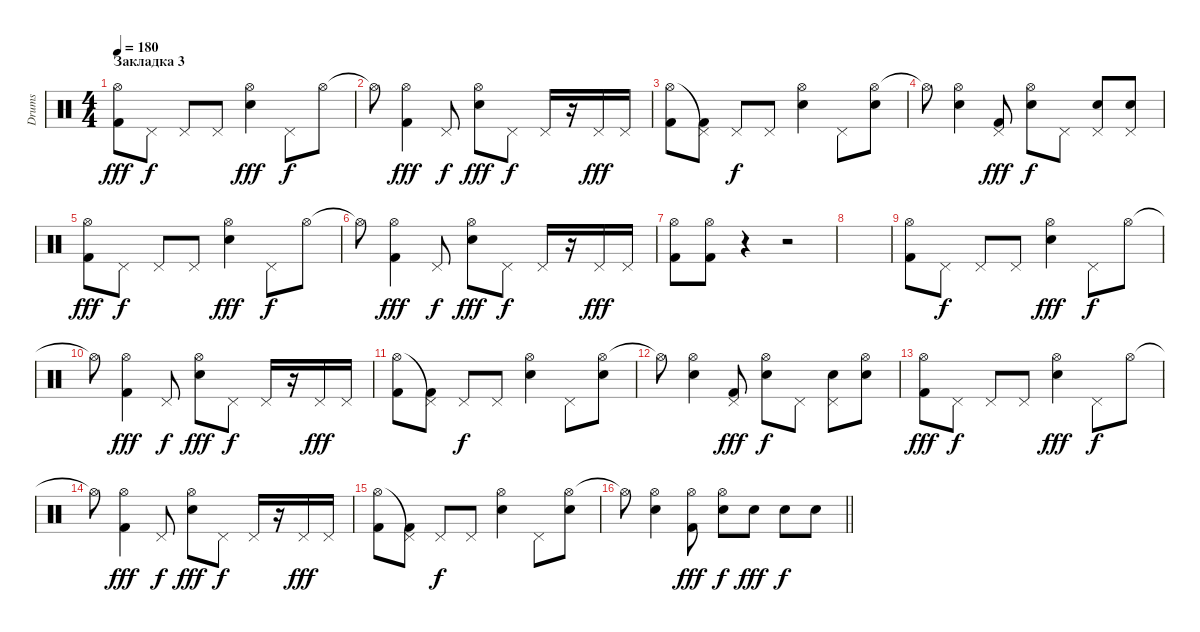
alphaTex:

\track ("Drums" "Drums") {instrument percussion}
\staff {score}
\articulation defaults
\ts (4 4)
\section ("" "Закладка 3")
\tempo 180
\clef neutral
\ks c
("Hi-Hat (open)" "Kick (hit) 2").8{dy fff} "Pedal Hi-Hat (hit)".8{dy f} "Pedal Hi-Hat (hit)".8 "Pedal Hi-Hat (hit)".8 ("Hi-Hat (open)" "Electric Snare (hit)").4{dy fff} "Pedal Hi-Hat (hit)".8{dy f} "Hi-Hat (open)".8 |
"Hi-Hat (open)"{t}.8 ("Hi-Hat (open)" "Kick (hit) 2").4{dy fff} "Pedal Hi-Hat (hit)".8{dy f} ("Hi-Hat (open)" "Electric Snare (hit)").8{dy fff} "Pedal Hi-Hat (hit)".8{dy f} "Pedal Hi-Hat (hit)".16 r.16 "Pedal Hi-Hat (hit)".16{dy fff} "Pedal Hi-Hat (hit)".16 |
("Hi-Hat (open)" "Kick (hit) 2").8 ("Pedal Hi-Hat (hit)"{t} "Kick (hit) 2").8 "Pedal Hi-Hat (hit)".8{dy f} "Pedal Hi-Hat (hit)".8 ("Hi-Hat (open)" "Electric Snare (hit)").4 "Pedal Hi-Hat (hit)".8 ("Hi-Hat (open)" "Electric Snare (hit)").8 |
"Hi-Hat (open)"{t}.8 ("Hi-Hat (open)" "Electric Snare (hit)").4 ("Pedal Hi-Hat (hit)" "Kick (hit) 2").8{dy fff} ("Hi-Hat (open)" "Electric Snare (hit)").8{dy f} "Pedal Hi-Hat (hit)".8 ("Pedal Hi-Hat (hit)" "Electric Snare (hit)").8 ("Pedal Hi-Hat (hit)" "Electric Snare (hit)").8 |
("Hi-Hat (open)" "Kick (hit) 2").8{dy fff} "Pedal Hi-Hat (hit)".8{dy f} "Pedal Hi-Hat (hit)".8 "Pedal Hi-Hat (hit)".8 ("Hi-Hat (open)" "Electric Snare (hit)").4{dy fff} "Pedal Hi-Hat (hit)".8{dy f} "Hi-Hat (open)".8 |
"Hi-Hat (open)"{t}.8 ("Hi-Hat (open)" "Kick (hit) 2").4{dy fff} "Pedal Hi-Hat (hit)".8{dy f} ("Hi-Hat (open)" "Electric Snare (hit)").8{dy fff} "Pedal Hi-Hat (hit)".8{dy f} "Pedal Hi-Hat (hit)".16 r.16 "Pedal Hi-Hat (hit)".16{dy fff} "Pedal Hi-Hat (hit)".16 |
("Hi-Hat (open)" "Kick (hit) 2").8 ("Hi-Hat (open)" "Kick (hit) 2").8 r.4 r.2 |
|
("Hi-Hat (open)" "Kick (hit) 2").8 "Pedal Hi-Hat (hit)".8{dy f} "Pedal Hi-Hat (hit)".8 "Pedal Hi-Hat (hit)".8 ("Hi-Hat (open)" "Electric Snare (hit)").4{dy fff} "Pedal Hi-Hat (hit)".8{dy f} "Hi-Hat (open)".8 |
"Hi-Hat (open)"{t}.8 ("Hi-Hat (open)" "Kick (hit) 2").4{dy fff} "Pedal Hi-Hat (hit)".8{dy f} ("Hi-Hat (open)" "Electric Snare (hit)").8{dy fff} "Pedal Hi-Hat (hit)".8{dy f} "Pedal Hi-Hat (hit)".16 r.16 "Pedal Hi-Hat (hit)".16{dy fff} "Pedal Hi-Hat (hit)".16 |
("Hi-Hat (open)" "Kick (hit) 2").8 ("Pedal Hi-Hat (hit)"{t} "Kick (hit) 2").8 "Pedal Hi-Hat (hit)".8{dy f} "Pedal Hi-Hat (hit)".8 ("Hi-Hat (open)" "Electric Snare (hit)").4 "Pedal Hi-Hat (hit)".8 ("Hi-Hat (open)" "Electric Snare (hit)").8 |
"Hi-Hat (open)"{t}.8 ("Hi-Hat (open)" "Electric Snare (hit)").4 ("Pedal Hi-Hat (hit)" "Kick (hit) 2").8{dy fff} ("Hi-Hat (open)" "Electric Snare (hit)").8{dy f} "Pedal Hi-Hat (hit)".8 ("Pedal Hi-Hat (hit)" "Electric Snare (hit)").8 ("Hi-Hat (open)" "Electric Snare (hit)").8 |
("Hi-Hat (open)" "Kick (hit) 2").8{dy fff} "Pedal Hi-Hat (hit)".8{dy f} "Pedal Hi-Hat (hit)".8 "Pedal Hi-Hat (hit)".8 ("Hi-Hat (open)" "Electric Snare (hit)").4{dy fff} "Pedal Hi-Hat (hit)".8{dy f} "Hi-Hat (open)".8 |
"Hi-Hat (open)"{t}.8 ("Hi-Hat (open)" "Kick (hit) 2").4{dy fff} "Pedal Hi-Hat (hit)".8{dy f} ("Hi-Hat (open)" "Electric Snare (hit)").8{dy fff} "Pedal Hi-Hat (hit)".8{dy f} "Pedal Hi-Hat (hit)".16 r.16 "Pedal Hi-Hat (hit)".16{dy fff} "Pedal Hi-Hat (hit)".16 |
("Hi-Hat (open)" "Kick (hit) 2").8 ("Pedal Hi-Hat (hit)"{t} "Kick (hit) 2").8 "Pedal Hi-Hat (hit)".8{dy f} "Pedal Hi-Hat (hit)".8 ("Hi-Hat (open)" "Electric Snare (hit)").4 "Pedal Hi-Hat (hit)".8 ("Hi-Hat (open)" "Electric Snare (hit)").8 |
\barLineRight lightlight "Hi-Hat (open)"{t}.8
("Hi-Hat (open)" "Electric Snare (hit)").4 ("Hi-Hat (open)" "Kick (hit) 2").8{dy fff} ("Hi-Hat (open)" "Electric Snare (hit)").8{dy f} "Electric Snare (hit)".8{dy fff} "Electric Snare (hit)".8{dy f} "Electric Snare (hit)".8
